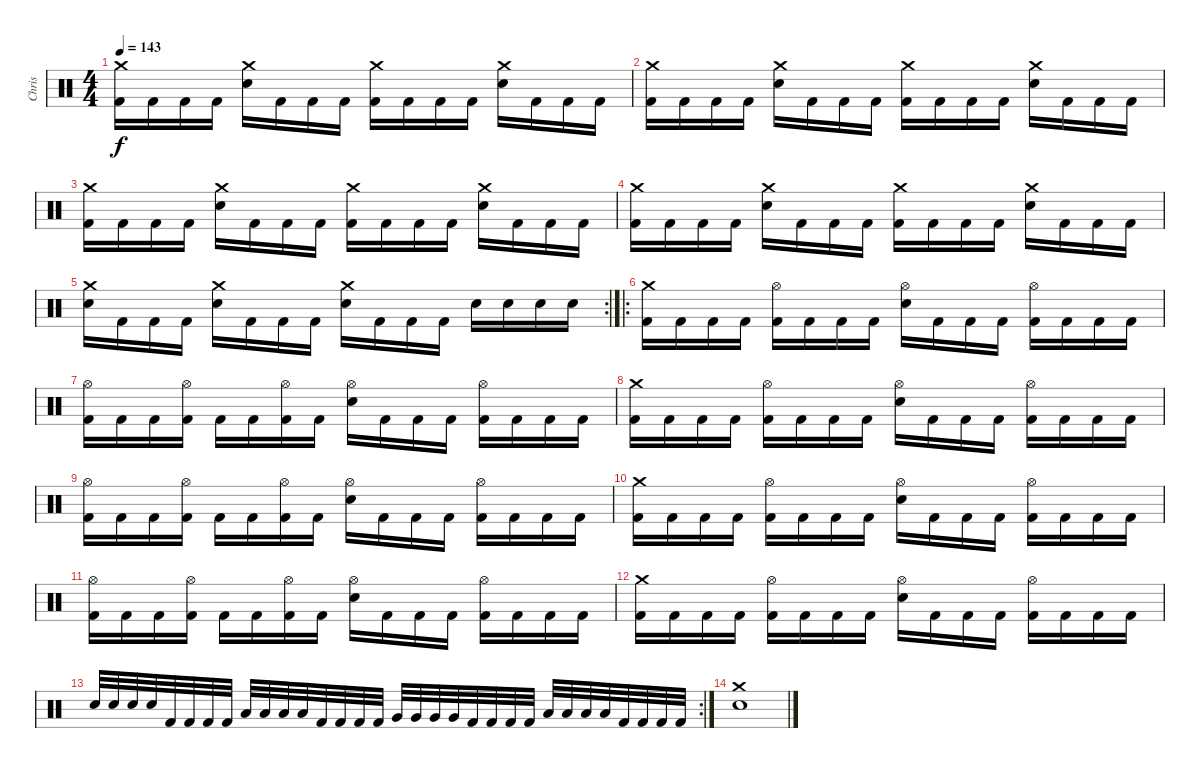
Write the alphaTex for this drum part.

\track ("Chris" "Chris") {instrument percussion}
\staff {score}
\articulation defaults
\ts (4 4)
\tempo 143
\clef neutral
\ks c
("Crash medium (hit)" "Kick (hit) 2").16{dy f} "Kick (hit) 2".16 "Kick (hit) 2".16 "Kick (hit) 2".16 ("Crash medium (hit)" "Electric Snare (hit)").16 "Kick (hit) 2".16 "Kick (hit) 2".16 "Kick (hit) 2".16 ("Crash medium (hit)" "Kick (hit) 2").16 "Kick (hit) 2".16 "Kick (hit) 2".16 "Kick (hit) 2".16 ("Crash medium (hit)" "Electric Snare (hit)").16 "Kick (hit) 2".16 "Kick (hit) 2".16 "Kick (hit) 2".16 |
("Crash medium (hit)" "Kick (hit) 2").16 "Kick (hit) 2".16 "Kick (hit) 2".16 "Kick (hit) 2".16 ("Crash medium (hit)" "Electric Snare (hit)").16 "Kick (hit) 2".16 "Kick (hit) 2".16 "Kick (hit) 2".16 ("Crash medium (hit)" "Kick (hit) 2").16 "Kick (hit) 2".16 "Kick (hit) 2".16 "Kick (hit) 2".16 ("Crash medium (hit)" "Electric Snare (hit)").16 "Kick (hit) 2".16 "Kick (hit) 2".16 "Kick (hit) 2".16 |
("Crash medium (hit)" "Kick (hit) 2").16 "Kick (hit) 2".16 "Kick (hit) 2".16 "Kick (hit) 2".16 ("Crash medium (hit)" "Electric Snare (hit)").16 "Kick (hit) 2".16 "Kick (hit) 2".16 "Kick (hit) 2".16 ("Crash medium (hit)" "Kick (hit) 2").16 "Kick (hit) 2".16 "Kick (hit) 2".16 "Kick (hit) 2".16 ("Crash medium (hit)" "Electric Snare (hit)").16 "Kick (hit) 2".16 "Kick (hit) 2".16 "Kick (hit) 2".16 |
("Crash medium (hit)" "Kick (hit) 2").16 "Kick (hit) 2".16 "Kick (hit) 2".16 "Kick (hit) 2".16 ("Crash medium (hit)" "Electric Snare (hit)").16 "Kick (hit) 2".16 "Kick (hit) 2".16 "Kick (hit) 2".16 ("Crash medium (hit)" "Kick (hit) 2").16 "Kick (hit) 2".16 "Kick (hit) 2".16 "Kick (hit) 2".16 ("Crash medium (hit)" "Electric Snare (hit)").16 "Kick (hit) 2".16 "Kick (hit) 2".16 "Kick (hit) 2".16 |
\rc 2
("Crash medium (hit)" "Electric Snare (hit)").16 "Kick (hit) 2".16 "Kick (hit) 2".16 "Kick (hit) 2".16 ("Crash medium (hit)" "Electric Snare (hit)").16 "Kick (hit) 2".16 "Kick (hit) 2".16 "Kick (hit) 2".16 ("Crash medium (hit)" "Electric Snare (hit)").16 "Kick (hit) 2".16 "Kick (hit) 2".16 "Kick (hit) 2".16 "Electric Snare (hit)".16 "Electric Snare (hit)".16 "Electric Snare (hit)".16 "Electric Snare (hit)".16 |
\ro
("Crash medium (hit)" "Kick (hit) 2").16 "Kick (hit) 2".16 "Kick (hit) 2".16 "Kick (hit) 2".16 ("Hi-Hat (open)" "Kick (hit) 2").16 "Kick (hit) 2".16 "Kick (hit) 2".16 "Kick (hit) 2".16 ("Hi-Hat (open)" "Electric Snare (hit)").16 "Kick (hit) 2".16 "Kick (hit) 2".16 "Kick (hit) 2".16 ("Hi-Hat (open)" "Kick (hit) 2").16 "Kick (hit) 2".16 "Kick (hit) 2".16 "Kick (hit) 2".16 |
("Hi-Hat (open)" "Kick (hit) 2").16 "Kick (hit) 2".16 "Kick (hit) 2".16 ("Hi-Hat (open)" "Kick (hit) 2").16 "Kick (hit) 2".16 "Kick (hit) 2".16 ("Hi-Hat (open)" "Kick (hit) 2").16 "Kick (hit) 2".16 ("Hi-Hat (open)" "Electric Snare (hit)").16 "Kick (hit) 2".16 "Kick (hit) 2".16 "Kick (hit) 2".16 ("Hi-Hat (open)" "Kick (hit) 2").16 "Kick (hit) 2".16 "Kick (hit) 2".16 "Kick (hit) 2".16 |
("Crash medium (hit)" "Kick (hit) 2").16 "Kick (hit) 2".16 "Kick (hit) 2".16 "Kick (hit) 2".16 ("Hi-Hat (open)" "Kick (hit) 2").16 "Kick (hit) 2".16 "Kick (hit) 2".16 "Kick (hit) 2".16 ("Hi-Hat (open)" "Electric Snare (hit)").16 "Kick (hit) 2".16 "Kick (hit) 2".16 "Kick (hit) 2".16 ("Hi-Hat (open)" "Kick (hit) 2").16 "Kick (hit) 2".16 "Kick (hit) 2".16 "Kick (hit) 2".16 |
("Hi-Hat (open)" "Kick (hit) 2").16 "Kick (hit) 2".16 "Kick (hit) 2".16 ("Hi-Hat (open)" "Kick (hit) 2").16 "Kick (hit) 2".16 "Kick (hit) 2".16 ("Hi-Hat (open)" "Kick (hit) 2").16 "Kick (hit) 2".16 ("Hi-Hat (open)" "Electric Snare (hit)").16 "Kick (hit) 2".16 "Kick (hit) 2".16 "Kick (hit) 2".16 ("Hi-Hat (open)" "Kick (hit) 2").16 "Kick (hit) 2".16 "Kick (hit) 2".16 "Kick (hit) 2".16 |
("Crash medium (hit)" "Kick (hit) 2").16 "Kick (hit) 2".16 "Kick (hit) 2".16 "Kick (hit) 2".16 ("Hi-Hat (open)" "Kick (hit) 2").16 "Kick (hit) 2".16 "Kick (hit) 2".16 "Kick (hit) 2".16 ("Hi-Hat (open)" "Electric Snare (hit)").16 "Kick (hit) 2".16 "Kick (hit) 2".16 "Kick (hit) 2".16 ("Hi-Hat (open)" "Kick (hit) 2").16 "Kick (hit) 2".16 "Kick (hit) 2".16 "Kick (hit) 2".16 |
("Hi-Hat (open)" "Kick (hit) 2").16 "Kick (hit) 2".16 "Kick (hit) 2".16 ("Hi-Hat (open)" "Kick (hit) 2").16 "Kick (hit) 2".16 "Kick (hit) 2".16 ("Hi-Hat (open)" "Kick (hit) 2").16 "Kick (hit) 2".16 ("Hi-Hat (open)" "Electric Snare (hit)").16 "Kick (hit) 2".16 "Kick (hit) 2".16 "Kick (hit) 2".16 ("Hi-Hat (open)" "Kick (hit) 2").16 "Kick (hit) 2".16 "Kick (hit) 2".16 "Kick (hit) 2".16 |
("Crash medium (hit)" "Kick (hit) 2").16 "Kick (hit) 2".16 "Kick (hit) 2".16 "Kick (hit) 2".16 ("Hi-Hat (open)" "Kick (hit) 2").16 "Kick (hit) 2".16 "Kick (hit) 2".16 "Kick (hit) 2".16 ("Hi-Hat (open)" "Electric Snare (hit)").16 "Kick (hit) 2".16 "Kick (hit) 2".16 "Kick (hit) 2".16 ("Hi-Hat (open)" "Kick (hit) 2").16 "Kick (hit) 2".16 "Kick (hit) 2".16 "Kick (hit) 2".16 |
\rc 2 "Electric Snare (hit)".32 "Electric Snare (hit)".32 "Electric Snare (hit)".32 "Electric Snare (hit)".32 "Kick (hit) 2".32 "Kick (hit) 2".32 "Kick (hit) 2".32 "Kick (hit) 2".32 "Low Tom (hit)".32 "Low Tom (hit)".32 "Low Tom (hit)".32 "Low Tom (hit)".32 "Kick (hit) 2".32 "Kick (hit) 2".32 "Kick (hit) 2".32 "Kick (hit) 2".32 "Very Low Tom (hit)".32 "Very Low Tom (hit)".32 "Very Low Tom (hit)".32 "Very Low Tom (hit)".32 "Kick (hit) 2".32 "Kick (hit) 2".32 "Kick (hit) 2".32 "Kick (hit) 2".32 "Low Floor Tom (hit)".32 "Low Floor Tom (hit)".32 "Low Floor Tom (hit)".32 "Low Floor Tom (hit)".32 "Kick (hit) 2".32 "Kick (hit) 2".32 "Kick (hit) 2".32 "Kick (hit) 2".32
|
("Crash medium (hit)" "Electric Snare (hit)").1
